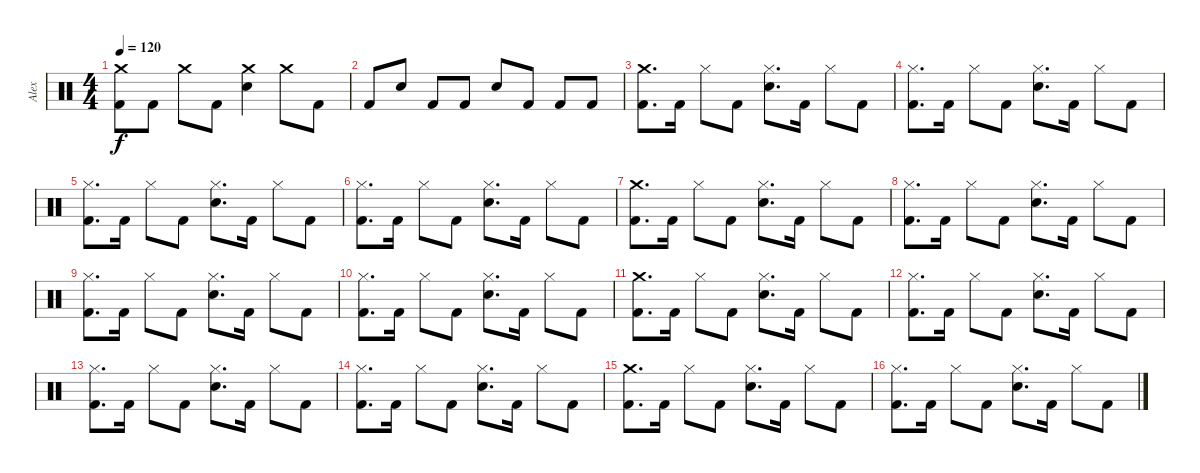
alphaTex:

\track ("Alex" "Alex") {instrument percussion}
\staff {score}
\articulation defaults
\ts (4 4)
\tempo 120
\clef neutral
\ks c
("Crash medium (hit)" "Kick (hit) 2").8{dy f} "Kick (hit) 2".8 "Crash medium (hit)".8 "Kick (hit) 2".8 ("Crash medium (hit)" "Snare (hit) 2").4 "Crash medium (hit)".8 "Kick (hit) 2".8 |
"Kick (hit) 2".8 "Snare (hit) 2".8 "Kick (hit) 2".8 "Kick (hit) 2".8 "Snare (hit) 2".8 "Kick (hit) 2".8 "Kick (hit) 2".8 "Kick (hit) 2".8 |
("Crash medium (hit)" "Kick (hit) 2").8{d} "Kick (hit) 2".16 "Hi-Hat (closed)".8 "Kick (hit) 2".8 ("Hi-Hat (closed)" "Snare (hit) 2").8{d} "Kick (hit) 2".16 "Hi-Hat (closed)".8 "Kick (hit) 2".8 |
("Hi-Hat (closed)" "Kick (hit) 2").8{d} "Kick (hit) 2".16 "Hi-Hat (closed)".8 "Kick (hit) 2".8 ("Hi-Hat (closed)" "Snare (hit) 2").8{d} "Kick (hit) 2".16 "Hi-Hat (closed)".8 "Kick (hit) 2".8 |
("Hi-Hat (closed)" "Kick (hit) 2").8{d} "Kick (hit) 2".16 "Hi-Hat (closed)".8 "Kick (hit) 2".8 ("Hi-Hat (closed)" "Snare (hit) 2").8{d} "Kick (hit) 2".16 "Hi-Hat (closed)".8 "Kick (hit) 2".8 |
("Hi-Hat (closed)" "Kick (hit) 2").8{d} "Kick (hit) 2".16 "Hi-Hat (closed)".8 "Kick (hit) 2".8 ("Hi-Hat (closed)" "Snare (hit) 2").8{d} "Kick (hit) 2".16 "Hi-Hat (closed)".8 "Kick (hit) 2".8 |
("Crash medium (hit)" "Kick (hit) 2").8{d} "Kick (hit) 2".16 "Hi-Hat (closed)".8 "Kick (hit) 2".8 ("Hi-Hat (closed)" "Snare (hit) 2").8{d} "Kick (hit) 2".16 "Hi-Hat (closed)".8 "Kick (hit) 2".8 |
("Hi-Hat (closed)" "Kick (hit) 2").8{d} "Kick (hit) 2".16 "Hi-Hat (closed)".8 "Kick (hit) 2".8 ("Hi-Hat (closed)" "Snare (hit) 2").8{d} "Kick (hit) 2".16 "Hi-Hat (closed)".8 "Kick (hit) 2".8 |
("Hi-Hat (closed)" "Kick (hit) 2").8{d} "Kick (hit) 2".16 "Hi-Hat (closed)".8 "Kick (hit) 2".8 ("Hi-Hat (closed)" "Snare (hit) 2").8{d} "Kick (hit) 2".16 "Hi-Hat (closed)".8 "Kick (hit) 2".8 |
("Hi-Hat (closed)" "Kick (hit) 2").8{d} "Kick (hit) 2".16 "Hi-Hat (closed)".8 "Kick (hit) 2".8 ("Hi-Hat (closed)" "Snare (hit) 2").8{d} "Kick (hit) 2".16 "Hi-Hat (closed)".8 "Kick (hit) 2".8 |
("Crash medium (hit)" "Kick (hit) 2").8{d} "Kick (hit) 2".16 "Hi-Hat (closed)".8 "Kick (hit) 2".8 ("Hi-Hat (closed)" "Snare (hit) 2").8{d} "Kick (hit) 2".16 "Hi-Hat (closed)".8 "Kick (hit) 2".8 |
("Hi-Hat (closed)" "Kick (hit) 2").8{d} "Kick (hit) 2".16 "Hi-Hat (closed)".8 "Kick (hit) 2".8 ("Hi-Hat (closed)" "Snare (hit) 2").8{d} "Kick (hit) 2".16 "Hi-Hat (closed)".8 "Kick (hit) 2".8 |
("Hi-Hat (closed)" "Kick (hit) 2").8{d} "Kick (hit) 2".16 "Hi-Hat (closed)".8 "Kick (hit) 2".8 ("Hi-Hat (closed)" "Snare (hit) 2").8{d} "Kick (hit) 2".16 "Hi-Hat (closed)".8 "Kick (hit) 2".8 |
("Hi-Hat (closed)" "Kick (hit) 2").8{d} "Kick (hit) 2".16 "Hi-Hat (closed)".8 "Kick (hit) 2".8 ("Hi-Hat (closed)" "Snare (hit) 2").8{d} "Kick (hit) 2".16 "Hi-Hat (closed)".8 "Kick (hit) 2".8 |
("Crash medium (hit)" "Kick (hit) 2").8{d} "Kick (hit) 2".16 "Hi-Hat (closed)".8 "Kick (hit) 2".8 ("Hi-Hat (closed)" "Snare (hit) 2").8{d} "Kick (hit) 2".16 "Hi-Hat (closed)".8 "Kick (hit) 2".8 |
("Hi-Hat (closed)" "Kick (hit) 2").8{d} "Kick (hit) 2".16 "Hi-Hat (closed)".8 "Kick (hit) 2".8 ("Hi-Hat (closed)" "Snare (hit) 2").8{d} "Kick (hit) 2".16 "Hi-Hat (closed)".8 "Kick (hit) 2".8
